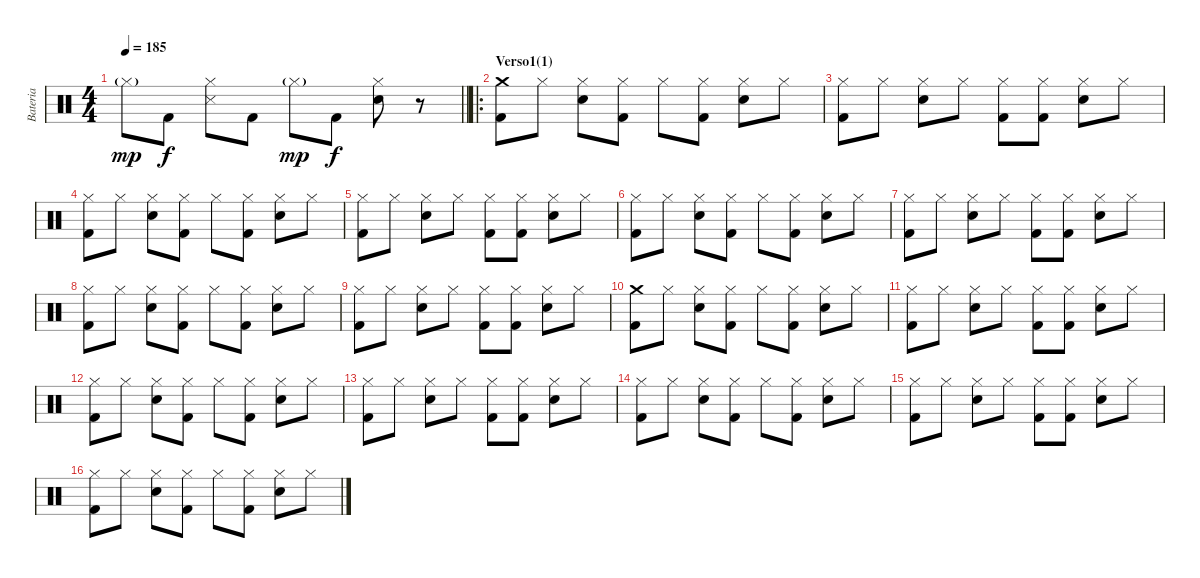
\track ("Bateria" "Bateria") {instrument percussion}
\staff {score}
\articulation defaults
\ts (4 4)
\tempo 185
\clef neutral
\barLineRight lightlight
\ks c "Hi-Hat (closed)"{g}.8{dy mp} "Kick (hit) 2".8{dy f}
("Hi-Hat (closed)" "Snare (side stick) 3").8 "Kick (hit) 2".8 "Hi-Hat (closed)"{g}.8{dy mp} "Kick (hit) 2".8{dy f} ("Hi-Hat (closed)" "Snare (hit) 2").8 r.8 |
\ro
\section ("" "Verso1(1)")
("Crash medium (hit)" "Kick (hit) 2").8 "Hi-Hat (closed)".8 ("Hi-Hat (closed)" "Snare (hit) 2").8 ("Hi-Hat (closed)" "Kick (hit) 2").8 "Hi-Hat (closed)".8 ("Hi-Hat (closed)" "Kick (hit) 2").8 ("Hi-Hat (closed)" "Snare (hit) 2").8 "Hi-Hat (closed)".8 |
("Hi-Hat (closed)" "Kick (hit) 2").8 "Hi-Hat (closed)".8 ("Hi-Hat (closed)" "Snare (hit) 2").8 "Hi-Hat (closed)".8 ("Hi-Hat (closed)" "Kick (hit) 2").8 ("Hi-Hat (closed)" "Kick (hit) 2").8 ("Hi-Hat (closed)" "Snare (hit) 2").8 "Hi-Hat (closed)".8 |
("Hi-Hat (closed)" "Kick (hit) 2").8 "Hi-Hat (closed)".8 ("Hi-Hat (closed)" "Snare (hit) 2").8 ("Hi-Hat (closed)" "Kick (hit) 2").8 "Hi-Hat (closed)".8 ("Hi-Hat (closed)" "Kick (hit) 2").8 ("Hi-Hat (closed)" "Snare (hit) 2").8 "Hi-Hat (closed)".8 |
("Hi-Hat (closed)" "Kick (hit) 2").8 "Hi-Hat (closed)".8 ("Hi-Hat (closed)" "Snare (hit) 2").8 "Hi-Hat (closed)".8 ("Hi-Hat (closed)" "Kick (hit) 2").8 ("Hi-Hat (closed)" "Kick (hit) 2").8 ("Hi-Hat (closed)" "Snare (hit) 2").8 "Hi-Hat (closed)".8 |
("Hi-Hat (closed)" "Kick (hit) 2").8 "Hi-Hat (closed)".8 ("Hi-Hat (closed)" "Snare (hit) 2").8 ("Hi-Hat (closed)" "Kick (hit) 2").8 "Hi-Hat (closed)".8 ("Hi-Hat (closed)" "Kick (hit) 2").8 ("Hi-Hat (closed)" "Snare (hit) 2").8 "Hi-Hat (closed)".8 |
("Hi-Hat (closed)" "Kick (hit) 2").8 "Hi-Hat (closed)".8 ("Hi-Hat (closed)" "Snare (hit) 2").8 "Hi-Hat (closed)".8 ("Hi-Hat (closed)" "Kick (hit) 2").8 ("Hi-Hat (closed)" "Kick (hit) 2").8 ("Hi-Hat (closed)" "Snare (hit) 2").8 "Hi-Hat (closed)".8 |
("Hi-Hat (closed)" "Kick (hit) 2").8 "Hi-Hat (closed)".8 ("Hi-Hat (closed)" "Snare (hit) 2").8 ("Hi-Hat (closed)" "Kick (hit) 2").8 "Hi-Hat (closed)".8 ("Hi-Hat (closed)" "Kick (hit) 2").8 ("Hi-Hat (closed)" "Snare (hit) 2").8 "Hi-Hat (closed)".8 |
("Hi-Hat (closed)" "Kick (hit) 2").8 "Hi-Hat (closed)".8 ("Hi-Hat (closed)" "Snare (hit) 2").8 "Hi-Hat (closed)".8 ("Hi-Hat (closed)" "Kick (hit) 2").8 ("Hi-Hat (closed)" "Kick (hit) 2").8 ("Hi-Hat (closed)" "Snare (hit) 2").8 "Hi-Hat (closed)".8 |
("Crash medium (hit)" "Kick (hit) 2").8 "Hi-Hat (closed)".8 ("Hi-Hat (closed)" "Snare (hit) 2").8 ("Hi-Hat (closed)" "Kick (hit) 2").8 "Hi-Hat (closed)".8 ("Hi-Hat (closed)" "Kick (hit) 2").8 ("Hi-Hat (closed)" "Snare (hit) 2").8 "Hi-Hat (closed)".8 |
("Hi-Hat (closed)" "Kick (hit) 2").8 "Hi-Hat (closed)".8 ("Hi-Hat (closed)" "Snare (hit) 2").8 "Hi-Hat (closed)".8 ("Hi-Hat (closed)" "Kick (hit) 2").8 ("Hi-Hat (closed)" "Kick (hit) 2").8 ("Hi-Hat (closed)" "Snare (hit) 2").8 "Hi-Hat (closed)".8 |
("Hi-Hat (closed)" "Kick (hit) 2").8 "Hi-Hat (closed)".8 ("Hi-Hat (closed)" "Snare (hit) 2").8 ("Hi-Hat (closed)" "Kick (hit) 2").8 "Hi-Hat (closed)".8 ("Hi-Hat (closed)" "Kick (hit) 2").8 ("Hi-Hat (closed)" "Snare (hit) 2").8 "Hi-Hat (closed)".8 |
("Hi-Hat (closed)" "Kick (hit) 2").8 "Hi-Hat (closed)".8 ("Hi-Hat (closed)" "Snare (hit) 2").8 "Hi-Hat (closed)".8 ("Hi-Hat (closed)" "Kick (hit) 2").8 ("Hi-Hat (closed)" "Kick (hit) 2").8 ("Hi-Hat (closed)" "Snare (hit) 2").8 "Hi-Hat (closed)".8 |
("Hi-Hat (closed)" "Kick (hit) 2").8 "Hi-Hat (closed)".8 ("Hi-Hat (closed)" "Snare (hit) 2").8 ("Hi-Hat (closed)" "Kick (hit) 2").8 "Hi-Hat (closed)".8 ("Hi-Hat (closed)" "Kick (hit) 2").8 ("Hi-Hat (closed)" "Snare (hit) 2").8 "Hi-Hat (closed)".8 |
("Hi-Hat (closed)" "Kick (hit) 2").8 "Hi-Hat (closed)".8 ("Hi-Hat (closed)" "Snare (hit) 2").8 "Hi-Hat (closed)".8 ("Hi-Hat (closed)" "Kick (hit) 2").8 ("Hi-Hat (closed)" "Kick (hit) 2").8 ("Hi-Hat (closed)" "Snare (hit) 2").8 "Hi-Hat (closed)".8 |
("Hi-Hat (closed)" "Kick (hit) 2").8 "Hi-Hat (closed)".8 ("Hi-Hat (closed)" "Snare (hit) 2").8 ("Hi-Hat (closed)" "Kick (hit) 2").8 "Hi-Hat (closed)".8 ("Hi-Hat (closed)" "Kick (hit) 2").8 ("Hi-Hat (closed)" "Snare (hit) 2").8 "Hi-Hat (closed)".8
